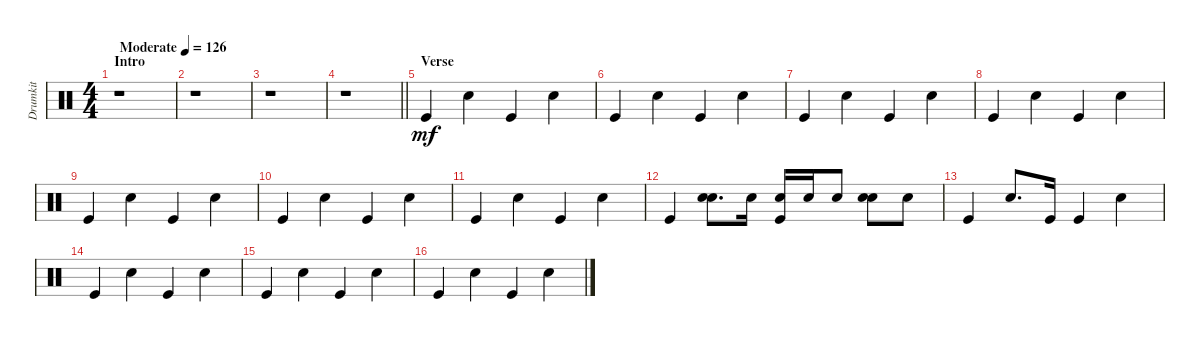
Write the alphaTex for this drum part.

\track ("Drumkit" "Drumkit") {instrument percussion}
\staff {score}
\articulation defaults
\ts (4 4)
\section ("" "Intro")
\tempo (126 "Moderate")
\clef neutral
\ks c
r.1{dy mf} |
r.1 |
r.1 |
\barLineRight lightlight
r.1 |
\section ("" "Verse")
"Kick (hit)".4 "Snare (hit) 2".4 "Kick (hit)".4 "Snare (hit) 2".4 |
"Kick (hit)".4 "Snare (hit) 2".4 "Kick (hit)".4 "Snare (hit) 2".4 |
"Kick (hit)".4 "Snare (hit) 2".4 "Kick (hit)".4 "Snare (hit) 2".4 |
"Kick (hit)".4 "Snare (hit) 2".4 "Kick (hit)".4 "Snare (hit) 2".4 |
"Kick (hit)".4 "Snare (hit) 2".4 "Kick (hit)".4 "Snare (hit) 2".4 |
"Kick (hit)".4 "Snare (hit) 2".4 "Kick (hit)".4 "Snare (hit) 2".4 |
"Kick (hit)".4 "Snare (hit) 2".4 "Kick (hit)".4 "Snare (hit) 2".4 |
"Kick (hit)".4 ("Snare (hit) 2" "Snare (hit) 2").8{d} "Snare (hit) 2".16 ("Kick (hit)" "Snare (hit) 2").16 "Snare (hit) 2".16 "Snare (hit) 2".8 ("Snare (hit) 2" "Snare (hit) 2").8 "Snare (hit) 2".8 |
"Kick (hit)".4 "Snare (hit) 2".8{d} "Kick (hit)".16 "Kick (hit)".4 "Snare (hit) 2".4 |
"Kick (hit)".4 "Snare (hit) 2".4 "Kick (hit)".4 "Snare (hit) 2".4 |
"Kick (hit)".4 "Snare (hit) 2".4 "Kick (hit)".4 "Snare (hit) 2".4 |
"Kick (hit)".4 "Snare (hit) 2".4 "Kick (hit)".4 "Snare (hit) 2".4
